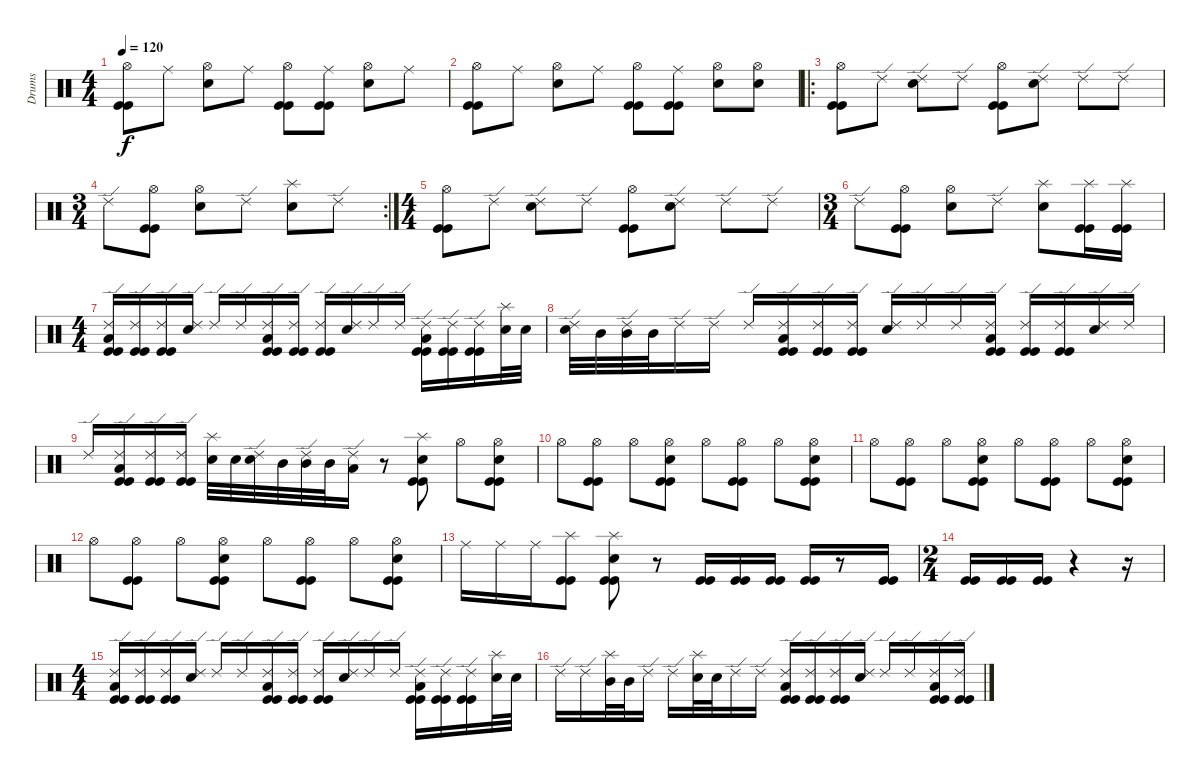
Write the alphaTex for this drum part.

\track ("Drums" "Drums") {instrument percussion}
\staff {score}
\articulation defaults
\ts (4 4)
\tempo 120
\clef neutral
\ks c
("Hi-Hat (open)" "Kick (hit)" "Kick (hit)").8{dy f} "Ride (middle)".8 ("Hi-Hat (open)" "Electric Snare (hit)").8 "Ride (middle)".8 ("Hi-Hat (open)" "Kick (hit)" "Kick (hit)").8 ("Ride (middle)" "Kick (hit)" "Kick (hit)").8 ("Hi-Hat (open)" "Electric Snare (hit)").8 "Ride (middle)".8 |
("Hi-Hat (open)" "Kick (hit)" "Kick (hit)").8 "Ride (middle)".8 ("Hi-Hat (open)" "Electric Snare (hit)").8 "Ride (middle)".8 ("Hi-Hat (open)" "Kick (hit)" "Kick (hit)").8 ("Ride (middle)" "Kick (hit)" "Kick (hit)").8 ("Hi-Hat (open)" "Electric Snare (hit)").8 ("Hi-Hat (open)" "Electric Snare (hit)").8 |
\ro
("Hi-Hat (open)" "Kick (hit)" "Kick (hit)").8 "Ride (edge) 2".8 ("Ride (edge) 2" "Electric Snare (hit)").8 "Ride (edge) 2".8 ("Hi-Hat (open)" "Kick (hit)" "Kick (hit)").8 ("Ride (edge) 2" "Electric Snare (hit)").8 "Ride (edge) 2".8 "Ride (edge) 2".8 |
\rc 2
\ts (3 4)
"Ride (edge) 2".8 ("Hi-Hat (open)" "Kick (hit)" "Kick (hit)").8 ("Hi-Hat (open)" "Electric Snare (hit)").8 "Ride (edge) 2".8 ("Splash (hit)" "Electric Snare (hit)").8 "Ride (edge) 2".8 |
\ts (4 4)
("Hi-Hat (open)" "Kick (hit)" "Kick (hit)").8 "Ride (edge) 2".8 ("Ride (edge) 2" "Electric Snare (hit)").8 "Ride (edge) 2".8 ("Hi-Hat (open)" "Kick (hit)" "Kick (hit)").8 ("Ride (edge) 2" "Electric Snare (hit)").8 "Ride (edge) 2".8 "Ride (edge) 2".8 |
\ts (3 4)
"Ride (edge) 2".8 ("Hi-Hat (open)" "Kick (hit)" "Kick (hit)").8 ("Hi-Hat (open)" "Electric Snare (hit)").8 "Ride (edge) 2".8 ("Splash (hit)" "Electric Snare (hit)").8 ("Splash (hit)" "Kick (hit)" "Kick (hit)").16 ("Splash (hit)" "Kick (hit)" "Kick (hit)").16 |
\ts (4 4)
("Ride (edge) 2" "Low Floor Tom (hit)" "Kick (hit)" "Kick (hit)").16 ("Ride (edge) 2" "Kick (hit)" "Kick (hit)").16 ("Ride (edge) 2" "Kick (hit)" "Kick (hit)").16 ("Ride (edge) 2" "Electric Snare (hit)").16 "Ride (edge) 2".16 "Ride (edge) 2".16 ("Ride (edge) 2" "Low Floor Tom (hit)" "Kick (hit)" "Kick (hit)").16 ("Ride (edge) 2" "Kick (hit)" "Kick (hit)").16 ("Ride (edge) 2" "Kick (hit)" "Kick (hit)").16 ("Ride (edge) 2" "Electric Snare (hit)").16 "Ride (edge) 2".16 "Ride (edge) 2".16 ("Ride (edge) 2" "Low Floor Tom (hit)" "Kick (hit)" "Kick (hit)").16 ("Ride (edge) 2" "Kick (hit)" "Kick (hit)").16 ("Ride (edge) 2" "Kick (hit)" "Kick (hit)").16 ("Splash (hit)" "Electric Snare (hit)").32 "Electric Snare (hit)".32 |
("Ride (edge) 2" "Electric Snare (hit)").32 "Mid Tom (hit)".32 ("Ride (edge) 2" "Mid Tom (hit)").32 "Mid Tom (hit)".32 "Ride (edge) 2".16 "Ride (edge) 2".16 "Ride (edge) 2".16 ("Ride (edge) 2" "Low Floor Tom (hit)" "Kick (hit)" "Kick (hit)").16 ("Ride (edge) 2" "Kick (hit)" "Kick (hit)").16 ("Ride (edge) 2" "Kick (hit)" "Kick (hit)").16 ("Ride (edge) 2" "Electric Snare (hit)").16 "Ride (edge) 2".16 "Ride (edge) 2".16 ("Ride (edge) 2" "Low Floor Tom (hit)" "Kick (hit)" "Kick (hit)").16 ("Ride (edge) 2" "Kick (hit)" "Kick (hit)").16 ("Ride (edge) 2" "Kick (hit)" "Kick (hit)").16 ("Ride (edge) 2" "Electric Snare (hit)").16 "Ride (edge) 2".16 |
"Ride (edge) 2".16 ("Ride (edge) 2" "Low Floor Tom (hit)" "Kick (hit)" "Kick (hit)").16 ("Ride (edge) 2" "Kick (hit)" "Kick (hit)").16 ("Ride (edge) 2" "Kick (hit)" "Kick (hit)").16 ("Splash (hit)" "Electric Snare (hit)").32 "Electric Snare (hit)".32 ("Ride (edge) 2" "Electric Snare (hit)").32 "Mid Tom (hit)".32 ("Ride (edge) 2" "Mid Tom (hit)").32 "Mid Tom (hit)".32 ("Ride (edge) 2" "Low Floor Tom (hit)").16 r.8 ("Splash (hit)" "Electric Snare (hit)" "Kick (hit)" "Kick (hit)").8 "Hi-Hat (open)".8 ("Hi-Hat (open)" "Electric Snare (hit)" "Kick (hit)" "Kick (hit)").8 |
"Hi-Hat (open)".8 ("Hi-Hat (open)" "Kick (hit)" "Kick (hit)").8 "Hi-Hat (open)".8 ("Hi-Hat (open)" "Electric Snare (hit)" "Kick (hit)" "Kick (hit)").8 "Hi-Hat (open)".8 ("Hi-Hat (open)" "Kick (hit)" "Kick (hit)").8 "Hi-Hat (open)".8 ("Hi-Hat (open)" "Electric Snare (hit)" "Kick (hit)" "Kick (hit)").8 |
"Hi-Hat (open)".8 ("Hi-Hat (open)" "Kick (hit)" "Kick (hit)").8 "Hi-Hat (open)".8 ("Hi-Hat (open)" "Electric Snare (hit)" "Kick (hit)" "Kick (hit)").8 "Hi-Hat (open)".8 ("Hi-Hat (open)" "Kick (hit)" "Kick (hit)").8 "Hi-Hat (open)".8 ("Hi-Hat (open)" "Electric Snare (hit)" "Kick (hit)" "Kick (hit)").8 |
"Hi-Hat (open)".8 ("Hi-Hat (open)" "Kick (hit)" "Kick (hit)").8 "Hi-Hat (open)".8 ("Hi-Hat (open)" "Electric Snare (hit)" "Kick (hit)" "Kick (hit)").8 "Hi-Hat (open)".8 ("Hi-Hat (open)" "Kick (hit)" "Kick (hit)").8 "Hi-Hat (open)".8 ("Hi-Hat (open)" "Electric Snare (hit)" "Kick (hit)" "Kick (hit)").8 |
"Ride (middle)".16 "Ride (middle)".16 "Ride (middle)".16 ("Splash (hit)" "Kick (hit)" "Kick (hit)").8 ("Splash (hit)" "Electric Snare (hit)" "Kick (hit)" "Kick (hit)").8 r.8 ("Kick (hit)" "Kick (hit)").16 ("Kick (hit)" "Kick (hit)").16 ("Kick (hit)" "Kick (hit)").16 ("Kick (hit)" "Kick (hit)").16 r.8 ("Kick (hit)" "Kick (hit)").16 |
\ts (2 4)
("Kick (hit)" "Kick (hit)").16 ("Kick (hit)" "Kick (hit)").16 ("Kick (hit)" "Kick (hit)").16 r.4 r.16 |
\ts (4 4)
("Ride (edge) 2" "Low Floor Tom (hit)" "Kick (hit)" "Kick (hit)").16 ("Ride (edge) 2" "Kick (hit)" "Kick (hit)").16 ("Ride (edge) 2" "Kick (hit)" "Kick (hit)").16 ("Ride (edge) 2" "Electric Snare (hit)").16 "Ride (edge) 2".16 "Ride (edge) 2".16 ("Ride (edge) 2" "Low Floor Tom (hit)" "Kick (hit)" "Kick (hit)").16 ("Ride (edge) 2" "Kick (hit)" "Kick (hit)").16 ("Ride (edge) 2" "Kick (hit)" "Kick (hit)").16 ("Ride (edge) 2" "Electric Snare (hit)").16 "Ride (edge) 2".16 "Ride (edge) 2".16 ("Ride (edge) 2" "Low Floor Tom (hit)" "Kick (hit)" "Kick (hit)").16 ("Ride (edge) 2" "Kick (hit)" "Kick (hit)").16 ("Ride (edge) 2" "Kick (hit)" "Kick (hit)").16 ("Splash (hit)" "Electric Snare (hit)").32 "Electric Snare (hit)".32 |
"Ride (edge) 2".16 "Ride (edge) 2".16 ("Splash (hit)" "Mid Tom (hit)").32 "Mid Tom (hit)".32 "Ride (edge) 2".16 "Ride (edge) 2".16 ("Splash (hit)" "Electric Snare (hit)").32 "Electric Snare (hit)".32 "Ride (edge) 2".16 "Ride (edge) 2".16 ("Ride (edge) 2" "Low Floor Tom (hit)" "Kick (hit)" "Kick (hit)").16 ("Ride (edge) 2" "Kick (hit)" "Kick (hit)").16 ("Ride (edge) 2" "Kick (hit)" "Kick (hit)").16 ("Ride (edge) 2" "Electric Snare (hit)").16 "Ride (edge) 2".16 "Ride (edge) 2".16 ("Ride (edge) 2" "Low Floor Tom (hit)" "Kick (hit)" "Kick (hit)").16 ("Ride (edge) 2" "Kick (hit)" "Kick (hit)").16
